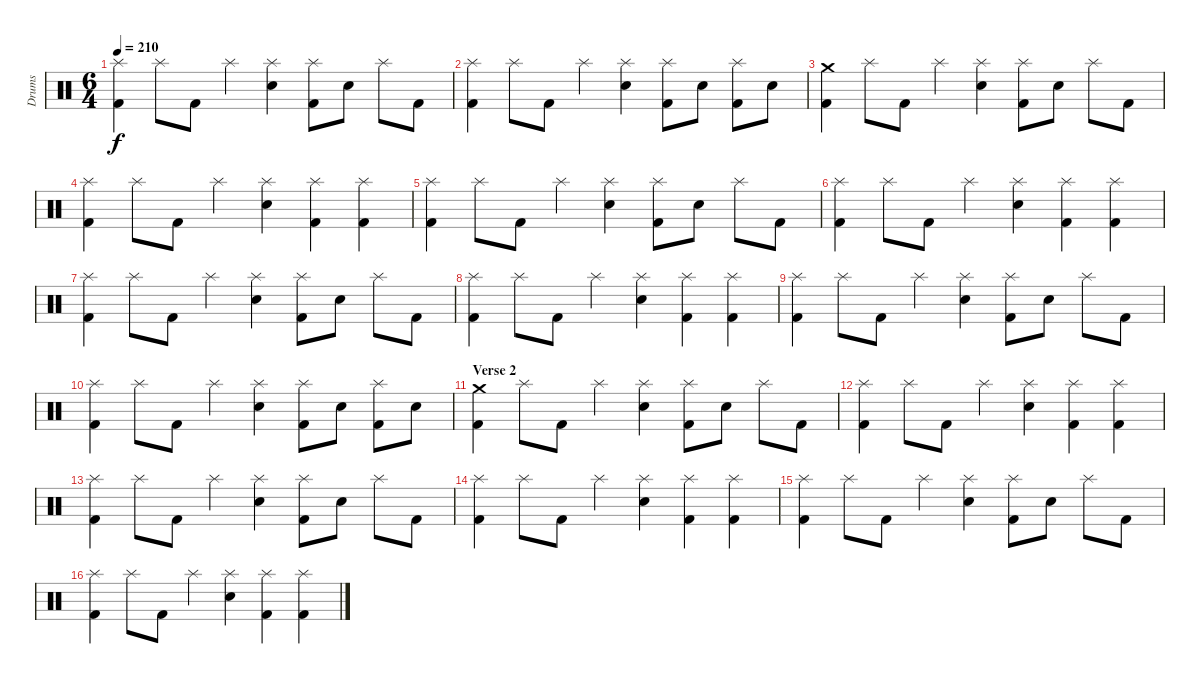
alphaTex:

\track ("Drums" "Drums") {instrument percussion}
\staff {score}
\articulation defaults
\ts (6 4)
\tempo 210
\clef neutral
\ks c
("Splash (hit)" "Kick (hit) 2").4{dy f} "Splash (hit)".8 "Kick (hit) 2".8 "Splash (hit)".4 ("Splash (hit)" "Electric Snare (hit)").4 ("Splash (hit)" "Kick (hit) 2").8 "Electric Snare (hit)".8 "Splash (hit)".8 "Kick (hit) 2".8 |
("Splash (hit)" "Kick (hit) 2").4 "Splash (hit)".8 "Kick (hit) 2".8 "Splash (hit)".4 ("Splash (hit)" "Electric Snare (hit)").4 ("Splash (hit)" "Kick (hit) 2").8 "Electric Snare (hit)".8 ("Splash (hit)" "Kick (hit) 2").8 "Electric Snare (hit)".8 |
("Crash medium (hit)" "Kick (hit) 2").4 "Splash (hit)".8 "Kick (hit) 2".8 "Splash (hit)".4 ("Splash (hit)" "Electric Snare (hit)").4 ("Splash (hit)" "Kick (hit) 2").8 "Electric Snare (hit)".8 "Splash (hit)".8 "Kick (hit) 2".8 |
("Splash (hit)" "Kick (hit) 2").4 "Splash (hit)".8 "Kick (hit) 2".8 "Splash (hit)".4 ("Splash (hit)" "Electric Snare (hit)").4 ("Splash (hit)" "Kick (hit) 2").4 ("Splash (hit)" "Kick (hit) 2").4 |
("Splash (hit)" "Kick (hit) 2").4 "Splash (hit)".8 "Kick (hit) 2".8 "Splash (hit)".4 ("Splash (hit)" "Electric Snare (hit)").4 ("Splash (hit)" "Kick (hit) 2").8 "Electric Snare (hit)".8 "Splash (hit)".8 "Kick (hit) 2".8 |
("Splash (hit)" "Kick (hit) 2").4 "Splash (hit)".8 "Kick (hit) 2".8 "Splash (hit)".4 ("Splash (hit)" "Electric Snare (hit)").4 ("Splash (hit)" "Kick (hit) 2").4 ("Splash (hit)" "Kick (hit) 2").4 |
("Splash (hit)" "Kick (hit) 2").4 "Splash (hit)".8 "Kick (hit) 2".8 "Splash (hit)".4 ("Splash (hit)" "Electric Snare (hit)").4 ("Splash (hit)" "Kick (hit) 2").8 "Electric Snare (hit)".8 "Splash (hit)".8 "Kick (hit) 2".8 |
("Splash (hit)" "Kick (hit) 2").4 "Splash (hit)".8 "Kick (hit) 2".8 "Splash (hit)".4 ("Splash (hit)" "Electric Snare (hit)").4 ("Splash (hit)" "Kick (hit) 2").4 ("Splash (hit)" "Kick (hit) 2").4 |
("Splash (hit)" "Kick (hit) 2").4 "Splash (hit)".8 "Kick (hit) 2".8 "Splash (hit)".4 ("Splash (hit)" "Electric Snare (hit)").4 ("Splash (hit)" "Kick (hit) 2").8 "Electric Snare (hit)".8 "Splash (hit)".8 "Kick (hit) 2".8 |
("Splash (hit)" "Kick (hit) 2").4 "Splash (hit)".8 "Kick (hit) 2".8 "Splash (hit)".4 ("Splash (hit)" "Electric Snare (hit)").4 ("Splash (hit)" "Kick (hit) 2").8 "Electric Snare (hit)".8 ("Splash (hit)" "Kick (hit) 2").8 "Electric Snare (hit)".8 |
\section ("" "Verse 2")
("Crash medium (hit)" "Kick (hit) 2").4 "Splash (hit)".8 "Kick (hit) 2".8 "Splash (hit)".4 ("Splash (hit)" "Electric Snare (hit)").4 ("Splash (hit)" "Kick (hit) 2").8 "Electric Snare (hit)".8 "Splash (hit)".8 "Kick (hit) 2".8 |
("Splash (hit)" "Kick (hit) 2").4 "Splash (hit)".8 "Kick (hit) 2".8 "Splash (hit)".4 ("Splash (hit)" "Electric Snare (hit)").4 ("Splash (hit)" "Kick (hit) 2").4 ("Splash (hit)" "Kick (hit) 2").4 |
("Splash (hit)" "Kick (hit) 2").4 "Splash (hit)".8 "Kick (hit) 2".8 "Splash (hit)".4 ("Splash (hit)" "Electric Snare (hit)").4 ("Splash (hit)" "Kick (hit) 2").8 "Electric Snare (hit)".8 "Splash (hit)".8 "Kick (hit) 2".8 |
("Splash (hit)" "Kick (hit) 2").4 "Splash (hit)".8 "Kick (hit) 2".8 "Splash (hit)".4 ("Splash (hit)" "Electric Snare (hit)").4 ("Splash (hit)" "Kick (hit) 2").4 ("Splash (hit)" "Kick (hit) 2").4 |
("Splash (hit)" "Kick (hit) 2").4 "Splash (hit)".8 "Kick (hit) 2".8 "Splash (hit)".4 ("Splash (hit)" "Electric Snare (hit)").4 ("Splash (hit)" "Kick (hit) 2").8 "Electric Snare (hit)".8 "Splash (hit)".8 "Kick (hit) 2".8 |
("Splash (hit)" "Kick (hit) 2").4 "Splash (hit)".8 "Kick (hit) 2".8 "Splash (hit)".4 ("Splash (hit)" "Electric Snare (hit)").4 ("Splash (hit)" "Kick (hit) 2").4 ("Splash (hit)" "Kick (hit) 2").4
